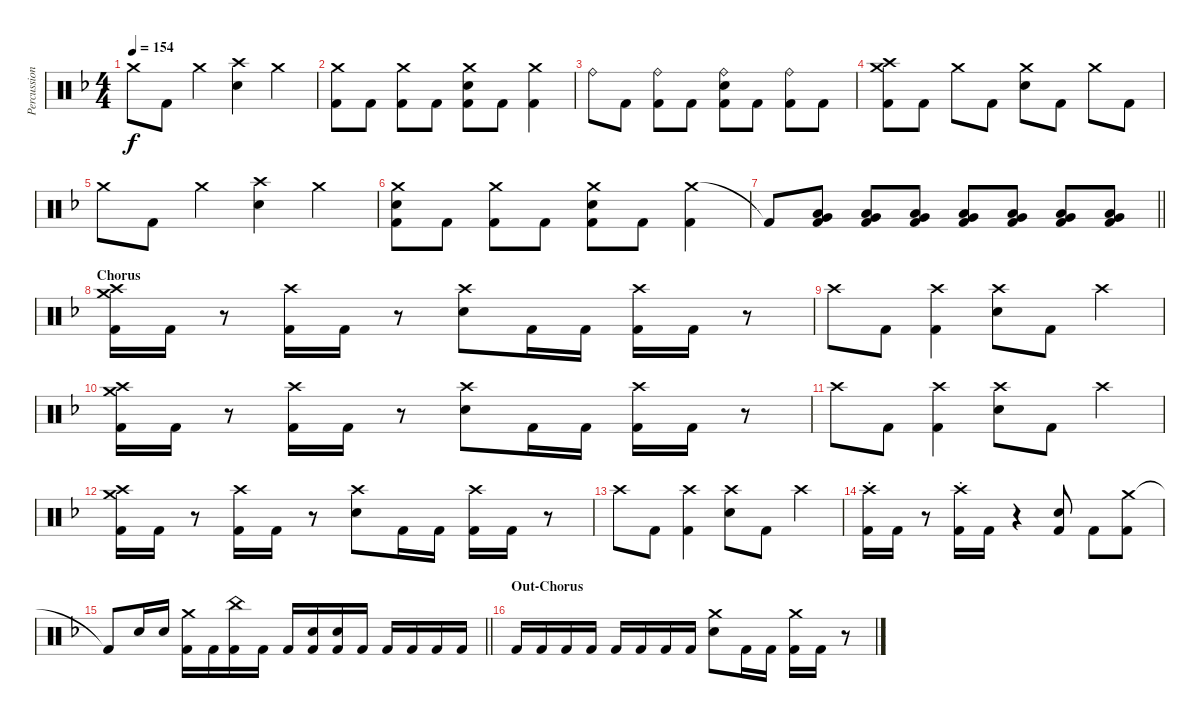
\track ("Percussion" "Percussion") {instrument percussion}
\staff {score}
\articulation defaults
\ts (4 4)
\tempo 154
\clef neutral
\ks dminor "Crash medium (hit)".8{dy f} "Kick (hit) 2".8 "Crash medium (hit)".4
("Crash high (hit)" "Electric Snare (hit)").4 "Crash medium (hit)".4 |
("Crash medium (hit)" "Kick (hit) 2").8 "Kick (hit) 2".8 ("Crash medium (hit)" "Kick (hit) 2").8 "Kick (hit) 2".8 ("Crash medium (hit)" "Electric Snare (hit)" "Kick (hit) 2").8 "Kick (hit) 2".8 ("Crash medium (hit)" "Kick (hit) 2").4 |
"Ride (bell)".8 "Kick (hit) 2".8 ("Ride (bell)" "Kick (hit) 2").8 "Kick (hit) 2".8 ("Ride (bell)" "Electric Snare (hit)" "Kick (hit) 2").8 "Kick (hit) 2".8 ("Ride (bell)" "Kick (hit) 2").8 "Kick (hit) 2".8 |
("Crash medium (hit)" "Crash high (hit)" "Kick (hit) 2").8 "Kick (hit) 2".8 "Crash medium (hit)".8 "Kick (hit) 2".8 ("Crash medium (hit)" "Electric Snare (hit)").8 "Kick (hit) 2".8 "Crash medium (hit)".8 "Kick (hit) 2".8 |
"Crash medium (hit)".8 "Kick (hit) 2".8 "Crash medium (hit)".4 ("Crash high (hit)" "Electric Snare (hit)").4 "Crash medium (hit)".4 |
("Crash medium (hit)" "Electric Snare (hit)" "Kick (hit) 2").8 "Kick (hit) 2".8 ("Crash medium (hit)" "Kick (hit) 2").8 "Kick (hit) 2".8 ("Crash medium (hit)" "Electric Snare (hit)" "Kick (hit) 2").8 "Kick (hit) 2".8 ("Crash medium (hit)" "Kick (hit) 2").4 |
\barLineRight lightlight "Kick (hit) 2"{t}.8
("Low Tom (hit)" "Very Low Tom (hit)" "Kick (hit) 2").8 ("Low Tom (hit)" "Very Low Tom (hit)" "Kick (hit) 2").8 ("Low Tom (hit)" "Very Low Tom (hit)" "Kick (hit) 2").8 ("Low Tom (hit)" "Very Low Tom (hit)" "Kick (hit) 2").8 ("Low Tom (hit)" "Very Low Tom (hit)" "Kick (hit) 2").8 ("Low Tom (hit)" "Very Low Tom (hit)" "Kick (hit) 2").8 ("Low Tom (hit)" "Very Low Tom (hit)" "Kick (hit) 2").8 |
\section ("" "Chorus")
("Crash medium (hit)" "Crash high (hit)" "Kick (hit) 2").16 "Kick (hit) 2".16 r.8 ("Crash high (hit)" "Kick (hit) 2").16 "Kick (hit) 2".16 r.8 ("Crash high (hit)" "Electric Snare (hit)").8 "Kick (hit) 2".16 "Kick (hit) 2".16 ("Crash high (hit)" "Kick (hit) 2").16 "Kick (hit) 2".16 r.8 |
"Crash high (hit)".8 "Kick (hit) 2".8 ("Crash high (hit)" "Kick (hit) 2").4 ("Crash high (hit)" "Electric Snare (hit)").8 "Kick (hit) 2".8 "Crash high (hit)".4 |
("Crash medium (hit)" "Crash high (hit)" "Kick (hit) 2").16 "Kick (hit) 2".16 r.8 ("Crash high (hit)" "Kick (hit) 2").16 "Kick (hit) 2".16 r.8 ("Crash high (hit)" "Electric Snare (hit)").8 "Kick (hit) 2".16 "Kick (hit) 2".16 ("Crash high (hit)" "Kick (hit) 2").16 "Kick (hit) 2".16 r.8 |
"Crash high (hit)".8 "Kick (hit) 2".8 ("Crash high (hit)" "Kick (hit) 2").4 ("Crash high (hit)" "Electric Snare (hit)").8 "Kick (hit) 2".8 "Crash high (hit)".4 |
("Crash medium (hit)" "Crash high (hit)" "Kick (hit) 2").16 "Kick (hit) 2".16 r.8 ("Crash high (hit)" "Kick (hit) 2").16 "Kick (hit) 2".16 r.8 ("Crash high (hit)" "Electric Snare (hit)").8 "Kick (hit) 2".16 "Kick (hit) 2".16 ("Crash high (hit)" "Kick (hit) 2").16 "Kick (hit) 2".16 r.8 |
"Crash high (hit)".8 "Kick (hit) 2".8 ("Crash high (hit)" "Kick (hit) 2").4 ("Crash high (hit)" "Electric Snare (hit)").8 "Kick (hit) 2".8 "Crash high (hit)".4 |
("Crash high (hit)"{st} "Kick (hit) 2").16 "Kick (hit) 2".16 r.8{volume 0} ("Crash high (hit)"{st} "Kick (hit) 2").16{volume 14} "Kick (hit) 2".16 r.4{volume 0} ("Electric Snare (hit)" "Kick (hit) 2").8{volume 14} "Kick (hit) 2".8 ("Crash medium (hit)" "Kick (hit) 2").8 |
\barLineRight lightlight "Kick (hit) 2"{t}.8 "Electric Snare (hit)".16 "Electric Snare (hit)".16
("Crash medium (hit)" "Kick (hit) 2").16 "Kick (hit) 2".16 ("China (hit)" "Kick (hit) 2").16 "Kick (hit) 2".16 "Kick (hit) 2".16 ("Electric Snare (hit)" "Kick (hit) 2").16 ("Electric Snare (hit)" "Kick (hit) 2").16 "Kick (hit) 2".16 "Kick (hit) 2".16 "Kick (hit) 2".16 "Kick (hit) 2".16 "Kick (hit) 2".16 |
\section ("" "Out-Chorus")
"Kick (hit) 2".16 "Kick (hit) 2".16 "Kick (hit) 2".16 "Kick (hit) 2".16 "Kick (hit) 2".16 "Kick (hit) 2".16 "Kick (hit) 2".16 "Kick (hit) 2".16 ("Crash medium (hit)" "Electric Snare (hit)").8 "Kick (hit) 2".16 "Kick (hit) 2".16 ("Crash medium (hit)" "Kick (hit) 2").16 "Kick (hit) 2".16 r.8
